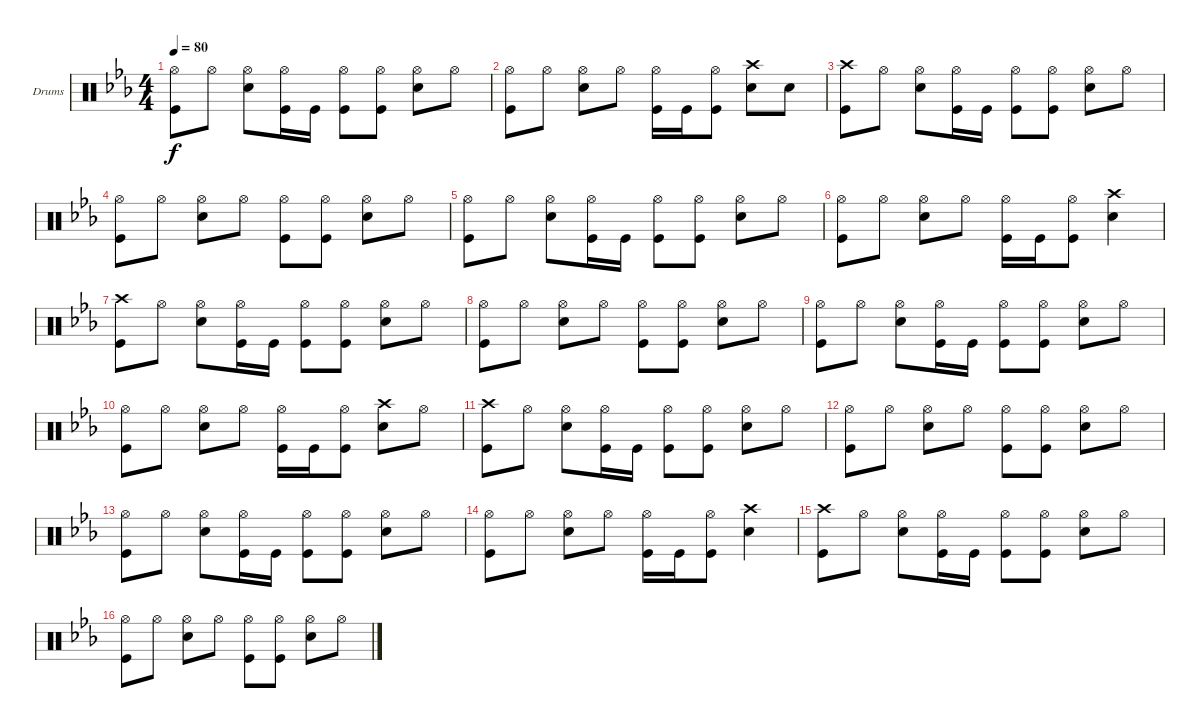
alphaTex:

\defaultSystemsLayout 4
\bracketExtendMode groupsimilarinstruments
\firstSystemTrackNameOrientation horizontal
\otherSystemsTrackNameOrientation horizontal
\track ("Drumkit" "Drums") {instrument percussion}
\staff {score}
\articulation defaults
\ts (4 4)
\tempo 80
\clef neutral
\ks cminor
("Kick (hit)" "Hi-Hat (open)").8{dy f} "Hi-Hat (open)".8 ("Hi-Hat (open)" "Snare (hit) 2").8 ("Hi-Hat (open)" "Kick (hit)").16 "Kick (hit)".16 ("Hi-Hat (open)" "Kick (hit)").8 ("Hi-Hat (open)" "Kick (hit)").8 ("Hi-Hat (open)" "Snare (hit) 2").8 "Hi-Hat (open)".8 |
("Kick (hit)" "Hi-Hat (open)").8 "Hi-Hat (open)".8 ("Hi-Hat (open)" "Snare (hit) 2").8 "Hi-Hat (open)".8 ("Kick (hit)" "Hi-Hat (open)").16 "Kick (hit)".16 ("Hi-Hat (open)" "Kick (hit)").8 ("Snare (hit) 2" "Crash high (hit)").8 "Snare (hit) 2".8 |
("Crash high (hit)" "Kick (hit)").8 "Hi-Hat (open)".8 ("Hi-Hat (open)" "Snare (hit) 2").8 ("Hi-Hat (open)" "Kick (hit)").16 "Kick (hit)".16 ("Hi-Hat (open)" "Kick (hit)").8 ("Hi-Hat (open)" "Kick (hit)").8 ("Hi-Hat (open)" "Snare (hit) 2").8 "Hi-Hat (open)".8 |
("Kick (hit)" "Hi-Hat (open)").8 "Hi-Hat (open)".8 ("Hi-Hat (open)" "Snare (hit) 2").8 "Hi-Hat (open)".8 ("Hi-Hat (open)" "Kick (hit)").8 ("Hi-Hat (open)" "Kick (hit)").8 ("Hi-Hat (open)" "Snare (hit) 2").8 "Hi-Hat (open)".8 |
("Kick (hit)" "Hi-Hat (open)").8 "Hi-Hat (open)".8 ("Hi-Hat (open)" "Snare (hit) 2").8 ("Hi-Hat (open)" "Kick (hit)").16 "Kick (hit)".16 ("Hi-Hat (open)" "Kick (hit)").8 ("Hi-Hat (open)" "Kick (hit)").8 ("Hi-Hat (open)" "Snare (hit) 2").8 "Hi-Hat (open)".8 |
("Kick (hit)" "Hi-Hat (open)").8 "Hi-Hat (open)".8 ("Hi-Hat (open)" "Snare (hit) 2").8 "Hi-Hat (open)".8 ("Kick (hit)" "Hi-Hat (open)").16 "Kick (hit)".16 ("Hi-Hat (open)" "Kick (hit)").8 ("Snare (hit) 2" "Crash high (hit)").4 |
("Crash high (hit)" "Kick (hit)").8 "Hi-Hat (open)".8 ("Hi-Hat (open)" "Snare (hit) 2").8 ("Hi-Hat (open)" "Kick (hit)").16 "Kick (hit)".16 ("Hi-Hat (open)" "Kick (hit)").8 ("Hi-Hat (open)" "Kick (hit)").8 ("Hi-Hat (open)" "Snare (hit) 2").8 "Hi-Hat (open)".8 |
("Kick (hit)" "Hi-Hat (open)").8 "Hi-Hat (open)".8 ("Hi-Hat (open)" "Snare (hit) 2").8 "Hi-Hat (open)".8 ("Hi-Hat (open)" "Kick (hit)").8 ("Hi-Hat (open)" "Kick (hit)").8 ("Hi-Hat (open)" "Snare (hit) 2").8 "Hi-Hat (open)".8 |
("Kick (hit)" "Hi-Hat (open)").8 "Hi-Hat (open)".8 ("Hi-Hat (open)" "Snare (hit) 2").8 ("Hi-Hat (open)" "Kick (hit)").16 "Kick (hit)".16 ("Hi-Hat (open)" "Kick (hit)").8 ("Hi-Hat (open)" "Kick (hit)").8 ("Hi-Hat (open)" "Snare (hit) 2").8 "Hi-Hat (open)".8 |
("Kick (hit)" "Hi-Hat (open)").8 "Hi-Hat (open)".8 ("Hi-Hat (open)" "Snare (hit) 2").8 "Hi-Hat (open)".8 ("Kick (hit)" "Hi-Hat (open)").16 "Kick (hit)".16 ("Hi-Hat (open)" "Kick (hit)").8 ("Snare (hit) 2" "Crash high (hit)").8 "Hi-Hat (open)".8 |
("Crash high (hit)" "Kick (hit)").8 "Hi-Hat (open)".8 ("Hi-Hat (open)" "Snare (hit) 2").8 ("Hi-Hat (open)" "Kick (hit)").16 "Kick (hit)".16 ("Hi-Hat (open)" "Kick (hit)").8 ("Hi-Hat (open)" "Kick (hit)").8 ("Hi-Hat (open)" "Snare (hit) 2").8 "Hi-Hat (open)".8 |
("Kick (hit)" "Hi-Hat (open)").8 "Hi-Hat (open)".8 ("Hi-Hat (open)" "Snare (hit) 2").8 "Hi-Hat (open)".8 ("Hi-Hat (open)" "Kick (hit)").8 ("Hi-Hat (open)" "Kick (hit)").8 ("Hi-Hat (open)" "Snare (hit) 2").8 "Hi-Hat (open)".8 |
("Kick (hit)" "Hi-Hat (open)").8 "Hi-Hat (open)".8 ("Hi-Hat (open)" "Snare (hit) 2").8 ("Hi-Hat (open)" "Kick (hit)").16 "Kick (hit)".16 ("Hi-Hat (open)" "Kick (hit)").8 ("Hi-Hat (open)" "Kick (hit)").8 ("Hi-Hat (open)" "Snare (hit) 2").8 "Hi-Hat (open)".8 |
("Kick (hit)" "Hi-Hat (open)").8 "Hi-Hat (open)".8 ("Hi-Hat (open)" "Snare (hit) 2").8 "Hi-Hat (open)".8 ("Kick (hit)" "Hi-Hat (open)").16 "Kick (hit)".16 ("Hi-Hat (open)" "Kick (hit)").8 ("Snare (hit) 2" "Crash high (hit)").4 |
("Crash high (hit)" "Kick (hit)").8 "Hi-Hat (open)".8 ("Hi-Hat (open)" "Snare (hit) 2").8 ("Hi-Hat (open)" "Kick (hit)").16 "Kick (hit)".16 ("Hi-Hat (open)" "Kick (hit)").8 ("Hi-Hat (open)" "Kick (hit)").8 ("Hi-Hat (open)" "Snare (hit) 2").8 "Hi-Hat (open)".8 |
("Kick (hit)" "Hi-Hat (open)").8 "Hi-Hat (open)".8 ("Hi-Hat (open)" "Snare (hit) 2").8 "Hi-Hat (open)".8 ("Hi-Hat (open)" "Kick (hit)").8 ("Hi-Hat (open)" "Kick (hit)").8 ("Hi-Hat (open)" "Snare (hit) 2").8 "Hi-Hat (open)".8
